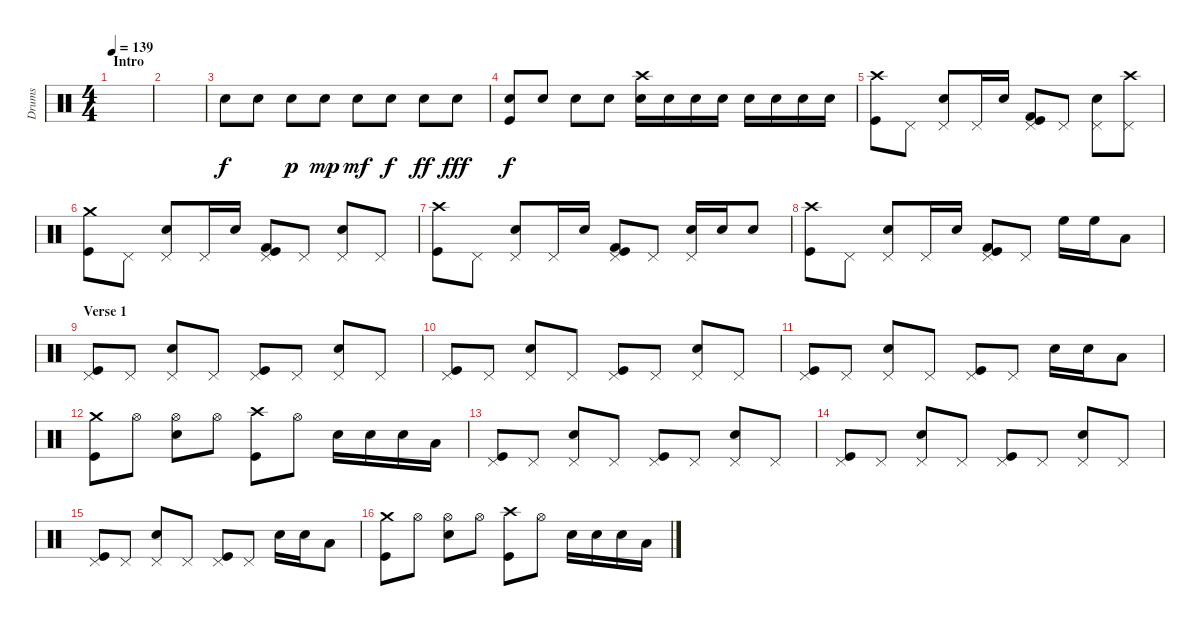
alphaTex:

\track ("Drums" "Drums") {instrument percussion}
\staff {score}
\articulation defaults
\ts (4 4)
\section ("" "Intro")
\tempo 139
\clef neutral
\ks c
|
|
"Electric Snare (hit)".8 "Electric Snare (hit)".8 "Electric Snare (hit)".8{dy p} "Electric Snare (hit)".8{dy mp} "Electric Snare (hit)".8{dy mf} "Electric Snare (hit)".8{dy f} "Electric Snare (hit)".8{dy ff} "Electric Snare (hit)".8{dy fff} |
("Electric Snare (hit)" "Kick (hit)").8{dy f} "Electric Snare (hit)".8 "Electric Snare (hit)".8 "Electric Snare (hit)".8 ("Electric Snare (hit)" "Crash high (hit)").16 "Electric Snare (hit)".16 "Electric Snare (hit)".16 "Electric Snare (hit)".16 "Electric Snare (hit)".16 "Electric Snare (hit)".16 "Electric Snare (hit)".16 "Electric Snare (hit)".16 |
("Crash high (hit)" "Kick (hit)").8 "Pedal Hi-Hat (hit)".8 ("Pedal Hi-Hat (hit)" "Electric Snare (hit)").8 "Pedal Hi-Hat (hit)".16 "Electric Snare (hit)".16 ("Pedal Hi-Hat (hit)" "Kick (hit)" "Kick (hit) 2").8 "Pedal Hi-Hat (hit)".8 ("Pedal Hi-Hat (hit)" "Electric Snare (hit)").8 ("Crash high (hit)" "Pedal Hi-Hat (hit)").8 |
("Crash medium (hit)" "Kick (hit)").8 "Pedal Hi-Hat (hit)".8 ("Pedal Hi-Hat (hit)" "Electric Snare (hit)").8 "Pedal Hi-Hat (hit)".16 "Electric Snare (hit)".16 ("Pedal Hi-Hat (hit)" "Kick (hit)" "Kick (hit) 2").8 "Pedal Hi-Hat (hit)".8 ("Pedal Hi-Hat (hit)" "Electric Snare (hit)").8 "Pedal Hi-Hat (hit)".8 |
("Crash high (hit)" "Kick (hit)").8 "Pedal Hi-Hat (hit)".8 ("Pedal Hi-Hat (hit)" "Electric Snare (hit)").8 "Pedal Hi-Hat (hit)".16 "Electric Snare (hit)".16 ("Pedal Hi-Hat (hit)" "Kick (hit)" "Kick (hit) 2").8 "Pedal Hi-Hat (hit)".8 ("Pedal Hi-Hat (hit)" "Electric Snare (hit)").16 "Electric Snare (hit)".16 "Electric Snare (hit)".8 |
("Crash high (hit)" "Kick (hit)").8 "Pedal Hi-Hat (hit)".8 ("Pedal Hi-Hat (hit)" "Electric Snare (hit)").8 "Pedal Hi-Hat (hit)".16 "Electric Snare (hit)".16 ("Pedal Hi-Hat (hit)" "Kick (hit)" "Kick (hit) 2").8 "Pedal Hi-Hat (hit)".8 "High Floor Tom (hit)".16 "High Floor Tom (hit)".16 "Low Tom (hit)".8 |
\section ("" "Verse 1")
("Pedal Hi-Hat (hit)" "Kick (hit)").8 "Pedal Hi-Hat (hit)".8 ("Pedal Hi-Hat (hit)" "Electric Snare (hit)").8 "Pedal Hi-Hat (hit)".8 ("Pedal Hi-Hat (hit)" "Kick (hit)").8 "Pedal Hi-Hat (hit)".8 ("Pedal Hi-Hat (hit)" "Electric Snare (hit)").8 "Pedal Hi-Hat (hit)".8 |
("Pedal Hi-Hat (hit)" "Kick (hit)").8 "Pedal Hi-Hat (hit)".8 ("Pedal Hi-Hat (hit)" "Electric Snare (hit)").8 "Pedal Hi-Hat (hit)".8 ("Pedal Hi-Hat (hit)" "Kick (hit)").8 "Pedal Hi-Hat (hit)".8 ("Pedal Hi-Hat (hit)" "Electric Snare (hit)").8 "Pedal Hi-Hat (hit)".8 |
("Pedal Hi-Hat (hit)" "Kick (hit)").8 "Pedal Hi-Hat (hit)".8 ("Pedal Hi-Hat (hit)" "Electric Snare (hit)").8 "Pedal Hi-Hat (hit)".8 ("Pedal Hi-Hat (hit)" "Kick (hit)").8 "Pedal Hi-Hat (hit)".8 "Electric Snare (hit)".16 "Electric Snare (hit)".16 "Low Tom (hit)".8 |
("Crash medium (hit)" "Kick (hit)").8 "Hi-Hat (open)".8 ("Hi-Hat (open)" "Electric Snare (hit)").8 "Hi-Hat (open)".8 ("Crash high (hit)" "Kick (hit)").8 "Hi-Hat (open)".8 "Electric Snare (hit)".16 "Electric Snare (hit)".16 "Electric Snare (hit)".16 "Low Tom (hit)".16 |
("Pedal Hi-Hat (hit)" "Kick (hit)").8 "Pedal Hi-Hat (hit)".8 ("Pedal Hi-Hat (hit)" "Electric Snare (hit)").8 "Pedal Hi-Hat (hit)".8 ("Pedal Hi-Hat (hit)" "Kick (hit)").8 "Pedal Hi-Hat (hit)".8 ("Pedal Hi-Hat (hit)" "Electric Snare (hit)").8 "Pedal Hi-Hat (hit)".8 |
("Pedal Hi-Hat (hit)" "Kick (hit)").8 "Pedal Hi-Hat (hit)".8 ("Pedal Hi-Hat (hit)" "Electric Snare (hit)").8 "Pedal Hi-Hat (hit)".8 ("Pedal Hi-Hat (hit)" "Kick (hit)").8 "Pedal Hi-Hat (hit)".8 ("Pedal Hi-Hat (hit)" "Electric Snare (hit)").8 "Pedal Hi-Hat (hit)".8 |
("Pedal Hi-Hat (hit)" "Kick (hit)").8 "Pedal Hi-Hat (hit)".8 ("Pedal Hi-Hat (hit)" "Electric Snare (hit)").8 "Pedal Hi-Hat (hit)".8 ("Pedal Hi-Hat (hit)" "Kick (hit)").8 "Pedal Hi-Hat (hit)".8 "Electric Snare (hit)".16 "Electric Snare (hit)".16 "Low Tom (hit)".8 |
("Crash medium (hit)" "Kick (hit)").8 "Hi-Hat (open)".8 ("Hi-Hat (open)" "Electric Snare (hit)").8 "Hi-Hat (open)".8 ("Crash high (hit)" "Kick (hit)").8 "Hi-Hat (open)".8 "Electric Snare (hit)".16 "Electric Snare (hit)".16 "Electric Snare (hit)".16 "Low Tom (hit)".16
